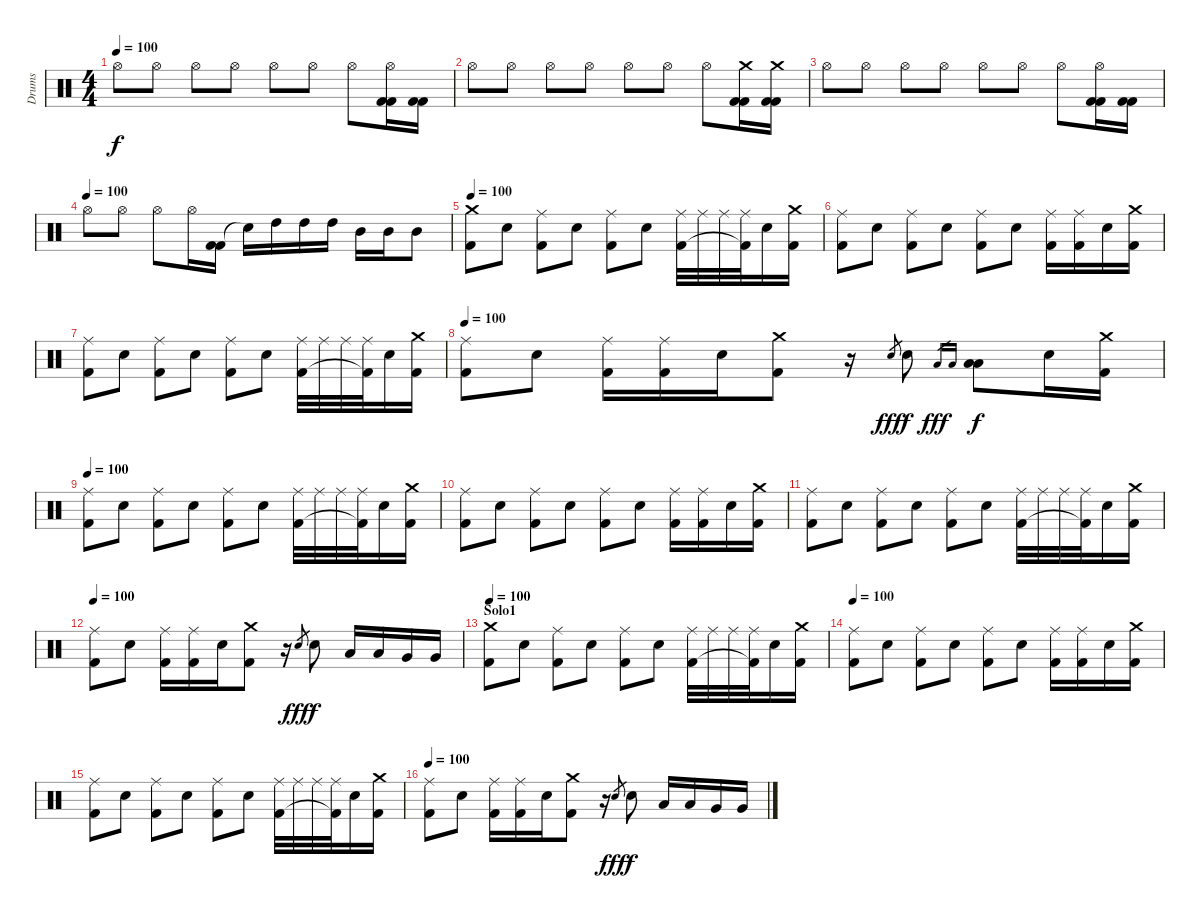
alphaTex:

\track ("Drums" "Drums") {instrument percussion}
\staff {score}
\articulation defaults
\ts (4 4)
\tempo 100
\clef neutral
\ks c "Hi-Hat (open)".8{dy f} "Hi-Hat (open)".8 "Hi-Hat (open)".8 "Hi-Hat (open)".8 "Hi-Hat (open)".8 "Hi-Hat (open)".8 "Hi-Hat (open)".8
("Hi-Hat (open)" "Kick (hit) 2" "Kick (hit) 2").16 ("Kick (hit) 2" "Kick (hit) 2").16 |
"Hi-Hat (open)".8 "Hi-Hat (open)".8 "Hi-Hat (open)".8 "Hi-Hat (open)".8 "Hi-Hat (open)".8 "Hi-Hat (open)".8 "Hi-Hat (open)".8 ("Crash medium (hit)" "Kick (hit) 2" "Kick (hit) 2").16 ("Crash medium (hit)" "Kick (hit) 2" "Kick (hit) 2").16 |
"Hi-Hat (open)".8 "Hi-Hat (open)".8 "Hi-Hat (open)".8 "Hi-Hat (open)".8 "Hi-Hat (open)".8 "Hi-Hat (open)".8 "Hi-Hat (open)".8 ("Hi-Hat (open)" "Kick (hit) 2" "Kick (hit) 2").16 ("Kick (hit) 2" "Kick (hit) 2").16 |
\tempo (100)
"Hi-Hat (open)".8 "Hi-Hat (open)".8 "Hi-Hat (open)".8 "Hi-Hat (open)".16 ("Kick (hit) 2" "Kick (hit) 2").16 "Snare (hit)"{t}.16 "High Tom (hit)".16 "High Tom (hit)".16 "High Tom (hit)".16 "Mid Tom (hit)".16 "Mid Tom (hit)".16 "Mid Tom (hit)".8 |
\tempo 100
("Crash medium (hit)" "Kick (hit) 2").8 "Snare (hit) 2".8 ("Ride (middle)" "Kick (hit) 2").8 "Snare (hit) 2".8 ("Ride (middle)" "Kick (hit) 2").8 "Snare (hit) 2".8 ("Ride (middle)" "Kick (hit) 2").32 "Ride (middle)".32 "Ride (middle)".32 ("Ride (middle)" "Kick (hit) 2"{t}).32 "Snare (hit) 2".16 ("Crash medium (hit)" "Kick (hit) 2").16 |
("Ride (middle)" "Kick (hit) 2").8 "Snare (hit) 2".8 ("Ride (middle)" "Kick (hit) 2").8 "Snare (hit) 2".8 ("Ride (middle)" "Kick (hit) 2").8 "Snare (hit) 2".8 ("Ride (middle)" "Kick (hit) 2").16 ("Ride (middle)" "Kick (hit) 2").16 "Snare (hit) 2".16 ("Crash medium (hit)" "Kick (hit) 2").16 |
("Ride (middle)" "Kick (hit) 2").8 "Snare (hit) 2".8 ("Ride (middle)" "Kick (hit) 2").8 "Snare (hit) 2".8 ("Ride (middle)" "Kick (hit) 2").8 "Snare (hit) 2".8 ("Ride (middle)" "Kick (hit) 2").32 "Ride (middle)".32 "Ride (middle)".32 ("Ride (middle)" "Kick (hit) 2"{t}).32 "Snare (hit) 2".16 ("Crash medium (hit)" "Kick (hit) 2").16 |
\tempo 100
("Ride (middle)" "Kick (hit) 2").8 "Snare (hit) 2".8 ("Ride (middle)" "Kick (hit) 2").16 ("Ride (middle)" "Kick (hit) 2").16 "Snare (hit) 2".16 ("Crash medium (hit)" "Kick (hit) 2").8 r.16 "Snare (hit) 2".8{gr dy fff} "Snare (hit) 2".8{dy f} "Low Tom (hit)".16{gr dy fff} "Low Tom (hit)".16{gr} ("Low Tom (hit)" "Low Tom (hit)").8{dy f} "Snare (hit) 2".16 ("Crash medium (hit)" "Kick (hit) 2").16 |
\tempo 100
("Ride (middle)" "Kick (hit) 2").8 "Snare (hit) 2".8 ("Ride (middle)" "Kick (hit) 2").8 "Snare (hit) 2".8 ("Ride (middle)" "Kick (hit) 2").8 "Snare (hit) 2".8 ("Ride (middle)" "Kick (hit) 2").32 "Ride (middle)".32 "Ride (middle)".32 ("Ride (middle)" "Kick (hit) 2"{t}).32 "Snare (hit) 2".16 ("Crash medium (hit)" "Kick (hit) 2").16 |
("Ride (middle)" "Kick (hit) 2").8 "Snare (hit) 2".8 ("Ride (middle)" "Kick (hit) 2").8 "Snare (hit) 2".8 ("Ride (middle)" "Kick (hit) 2").8 "Snare (hit) 2".8 ("Ride (middle)" "Kick (hit) 2").16 ("Ride (middle)" "Kick (hit) 2").16 "Snare (hit) 2".16 ("Crash medium (hit)" "Kick (hit) 2").16 |
("Ride (middle)" "Kick (hit) 2").8 "Snare (hit) 2".8 ("Ride (middle)" "Kick (hit) 2").8 "Snare (hit) 2".8 ("Ride (middle)" "Kick (hit) 2").8 "Snare (hit) 2".8 ("Ride (middle)" "Kick (hit) 2").32 "Ride (middle)".32 "Ride (middle)".32 ("Ride (middle)" "Kick (hit) 2"{t}).32 "Snare (hit) 2".16 ("Crash medium (hit)" "Kick (hit) 2").16 |
\tempo 100
("Ride (middle)" "Kick (hit) 2").8 "Snare (hit) 2".8 ("Ride (middle)" "Kick (hit) 2").16 ("Ride (middle)" "Kick (hit) 2").16 "Snare (hit) 2".16 ("Crash medium (hit)" "Kick (hit) 2").8 r.16 "Snare (hit) 2".8{gr dy fff} "Snare (hit) 2".8{dy f} "Low Tom (hit)".16 "Low Tom (hit)".16 "Very Low Tom (hit)".16 "Very Low Tom (hit)".16 |
\section ("" "Solo1")
\tempo 100
("Crash medium (hit)" "Kick (hit) 2").8 "Snare (hit) 2".8 ("Ride (middle)" "Kick (hit) 2").8 "Snare (hit) 2".8 ("Ride (middle)" "Kick (hit) 2").8 "Snare (hit) 2".8 ("Ride (middle)" "Kick (hit) 2").32 "Ride (middle)".32 "Ride (middle)".32 ("Ride (middle)" "Kick (hit) 2"{t}).32 "Snare (hit) 2".16 ("Crash medium (hit)" "Kick (hit) 2").16 |
\tempo 100
("Ride (middle)" "Kick (hit) 2").8 "Snare (hit) 2".8 ("Ride (middle)" "Kick (hit) 2").8 "Snare (hit) 2".8 ("Ride (middle)" "Kick (hit) 2").8 "Snare (hit) 2".8 ("Ride (middle)" "Kick (hit) 2").16 ("Ride (middle)" "Kick (hit) 2").16 "Snare (hit) 2".16 ("Crash medium (hit)" "Kick (hit) 2").16 |
("Ride (middle)" "Kick (hit) 2").8 "Snare (hit) 2".8 ("Ride (middle)" "Kick (hit) 2").8 "Snare (hit) 2".8 ("Ride (middle)" "Kick (hit) 2").8 "Snare (hit) 2".8 ("Ride (middle)" "Kick (hit) 2").32 "Ride (middle)".32 "Ride (middle)".32 ("Ride (middle)" "Kick (hit) 2"{t}).32 "Snare (hit) 2".16 ("Crash medium (hit)" "Kick (hit) 2").16 |
\tempo 100
("Ride (middle)" "Kick (hit) 2").8 "Snare (hit) 2".8 ("Ride (middle)" "Kick (hit) 2").16 ("Ride (middle)" "Kick (hit) 2").16 "Snare (hit) 2".16 ("Crash medium (hit)" "Kick (hit) 2").8 r.16 "Snare (hit) 2".8{gr dy fff} "Snare (hit) 2".8{dy f} "Low Tom (hit)".16 "Low Tom (hit)".16 "Very Low Tom (hit)".16 "Very Low Tom (hit)".16
